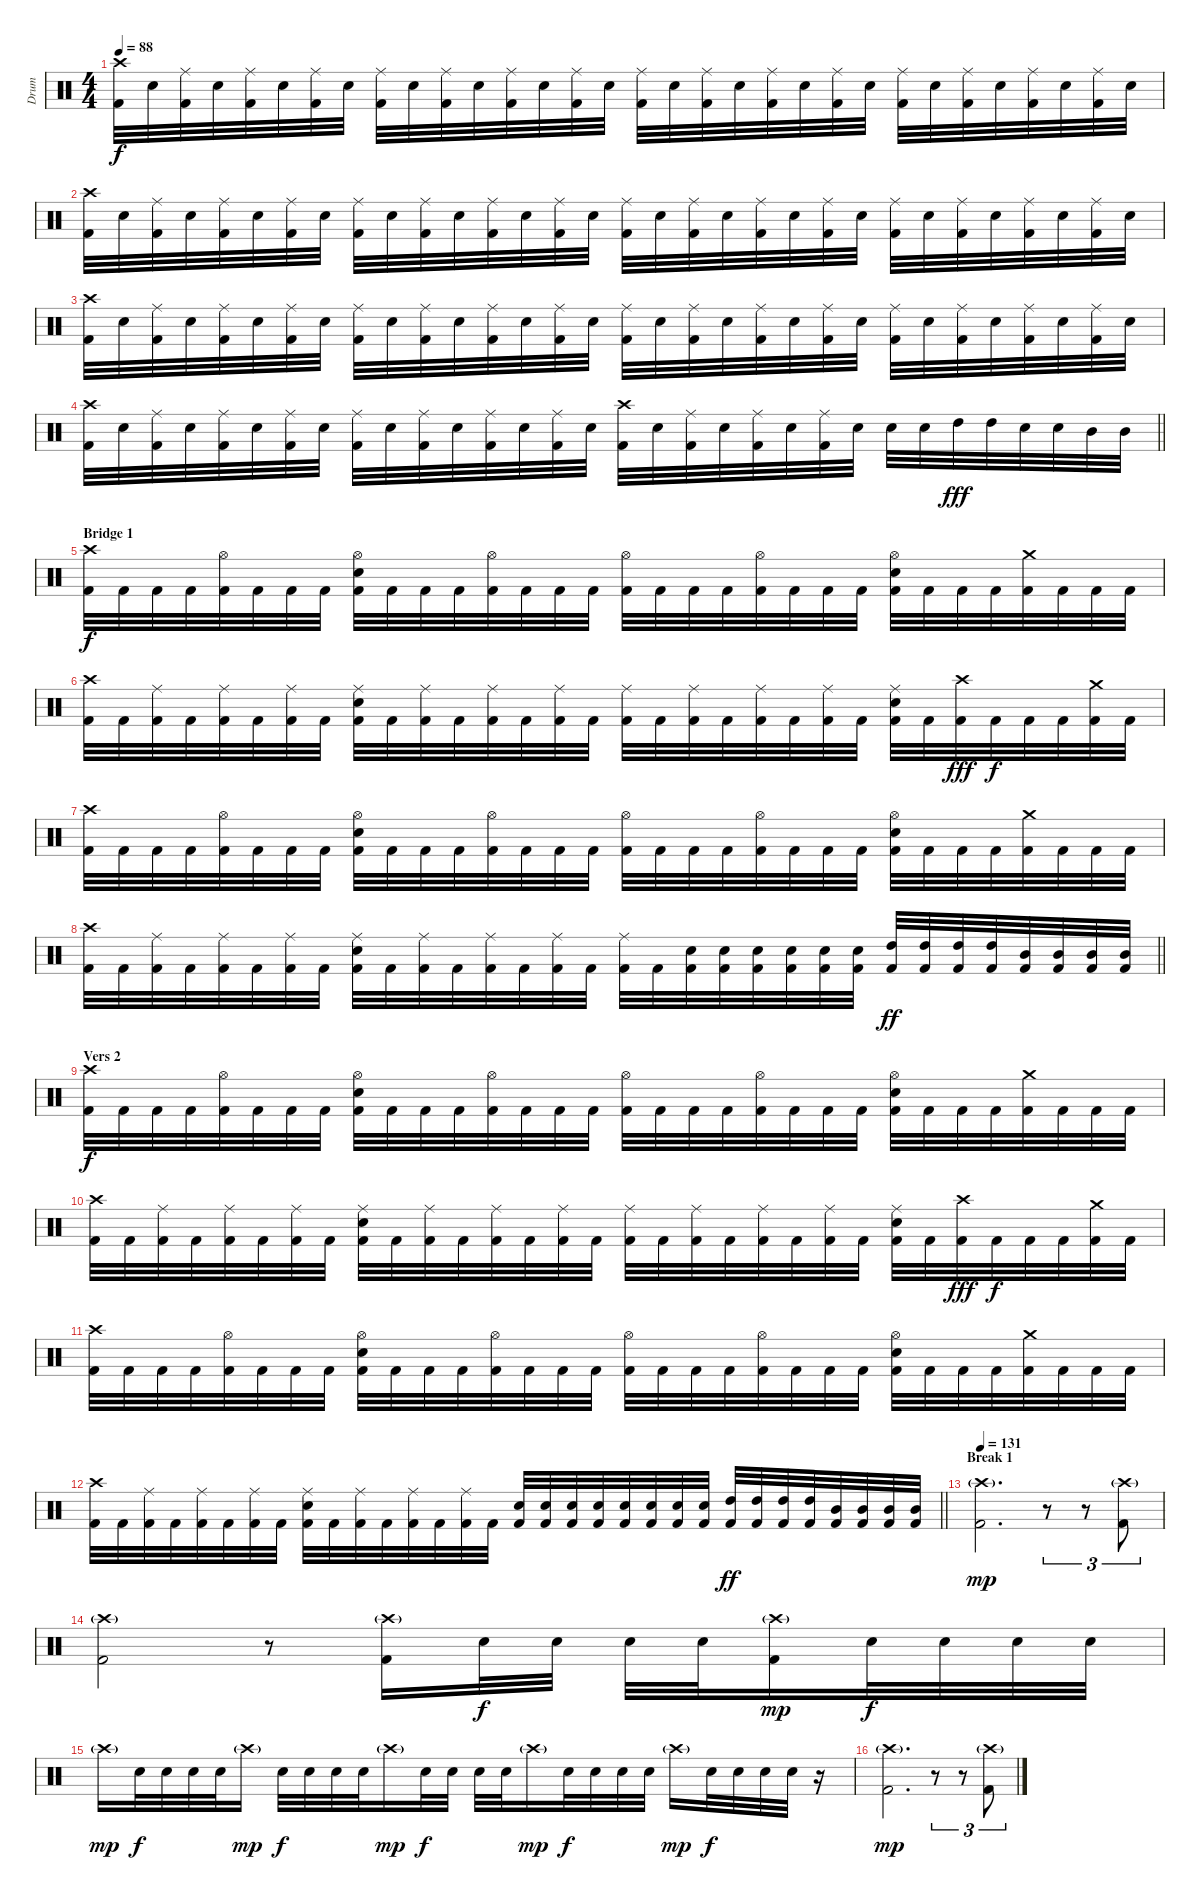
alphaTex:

\track ("Drum" "Drum") {instrument percussion}
\staff {score}
\articulation defaults
\ts (4 4)
\tempo 88
\clef neutral
\ks c
("Crash high (hit)" "Kick (hit) 2").32{dy f} "Electric Snare (hit)".32 ("Ride (middle)" "Kick (hit) 2").32 "Electric Snare (hit)".32 ("Ride (middle)" "Kick (hit) 2").32 "Electric Snare (hit)".32 ("Ride (middle)" "Kick (hit) 2").32 "Electric Snare (hit)".32 ("Ride (middle)" "Kick (hit) 2").32 "Electric Snare (hit)".32 ("Ride (middle)" "Kick (hit) 2").32 "Electric Snare (hit)".32 ("Ride (middle)" "Kick (hit) 2").32 "Electric Snare (hit)".32 ("Ride (middle)" "Kick (hit) 2").32 "Electric Snare (hit)".32 ("Ride (middle)" "Kick (hit) 2").32 "Electric Snare (hit)".32 ("Ride (middle)" "Kick (hit) 2").32 "Electric Snare (hit)".32 ("Ride (middle)" "Kick (hit) 2").32 "Electric Snare (hit)".32 ("Ride (middle)" "Kick (hit) 2").32 "Electric Snare (hit)".32 ("Ride (middle)" "Kick (hit) 2").32 "Electric Snare (hit)".32 ("Ride (middle)" "Kick (hit) 2").32 "Electric Snare (hit)".32 ("Ride (middle)" "Kick (hit) 2").32 "Electric Snare (hit)".32 ("Ride (middle)" "Kick (hit) 2").32 "Electric Snare (hit)".32 |
("Crash high (hit)" "Kick (hit) 2").32 "Electric Snare (hit)".32 ("Ride (middle)" "Kick (hit) 2").32 "Electric Snare (hit)".32 ("Ride (middle)" "Kick (hit) 2").32 "Electric Snare (hit)".32 ("Ride (middle)" "Kick (hit) 2").32 "Electric Snare (hit)".32 ("Ride (middle)" "Kick (hit) 2").32 "Electric Snare (hit)".32 ("Ride (middle)" "Kick (hit) 2").32 "Electric Snare (hit)".32 ("Ride (middle)" "Kick (hit) 2").32 "Electric Snare (hit)".32 ("Ride (middle)" "Kick (hit) 2").32 "Electric Snare (hit)".32 ("Ride (middle)" "Kick (hit) 2").32 "Electric Snare (hit)".32 ("Ride (middle)" "Kick (hit) 2").32 "Electric Snare (hit)".32 ("Ride (middle)" "Kick (hit) 2").32 "Electric Snare (hit)".32 ("Ride (middle)" "Kick (hit) 2").32 "Electric Snare (hit)".32 ("Ride (middle)" "Kick (hit) 2").32 "Electric Snare (hit)".32 ("Ride (middle)" "Kick (hit) 2").32 "Electric Snare (hit)".32 ("Ride (middle)" "Kick (hit) 2").32 "Electric Snare (hit)".32 ("Ride (middle)" "Kick (hit) 2").32 "Electric Snare (hit)".32 |
("Crash high (hit)" "Kick (hit) 2").32 "Electric Snare (hit)".32 ("Ride (middle)" "Kick (hit) 2").32 "Electric Snare (hit)".32 ("Ride (middle)" "Kick (hit) 2").32 "Electric Snare (hit)".32 ("Ride (middle)" "Kick (hit) 2").32 "Electric Snare (hit)".32 ("Ride (middle)" "Kick (hit) 2").32 "Electric Snare (hit)".32 ("Ride (middle)" "Kick (hit) 2").32 "Electric Snare (hit)".32 ("Ride (middle)" "Kick (hit) 2").32 "Electric Snare (hit)".32 ("Ride (middle)" "Kick (hit) 2").32 "Electric Snare (hit)".32 ("Ride (middle)" "Kick (hit) 2").32 "Electric Snare (hit)".32 ("Ride (middle)" "Kick (hit) 2").32 "Electric Snare (hit)".32 ("Ride (middle)" "Kick (hit) 2").32 "Electric Snare (hit)".32 ("Ride (middle)" "Kick (hit) 2").32 "Electric Snare (hit)".32 ("Ride (middle)" "Kick (hit) 2").32 "Electric Snare (hit)".32 ("Ride (middle)" "Kick (hit) 2").32 "Electric Snare (hit)".32 ("Ride (middle)" "Kick (hit) 2").32 "Electric Snare (hit)".32 ("Ride (middle)" "Kick (hit) 2").32 "Electric Snare (hit)".32 |
\barLineRight lightlight
("Crash high (hit)" "Kick (hit) 2").32 "Electric Snare (hit)".32 ("Ride (middle)" "Kick (hit) 2").32 "Electric Snare (hit)".32 ("Ride (middle)" "Kick (hit) 2").32 "Electric Snare (hit)".32 ("Ride (middle)" "Kick (hit) 2").32 "Electric Snare (hit)".32 ("Ride (middle)" "Kick (hit) 2").32 "Electric Snare (hit)".32 ("Ride (middle)" "Kick (hit) 2").32 "Electric Snare (hit)".32 ("Ride (middle)" "Kick (hit) 2").32 "Electric Snare (hit)".32 ("Ride (middle)" "Kick (hit) 2").32 "Electric Snare (hit)".32 ("Crash high (hit)" "Kick (hit) 2").32 "Electric Snare (hit)".32 ("Ride (middle)" "Kick (hit) 2").32 "Electric Snare (hit)".32 ("Ride (middle)" "Kick (hit) 2").32 "Electric Snare (hit)".32 ("Ride (middle)" "Kick (hit) 2").32 "Electric Snare (hit)".32 "Electric Snare (hit)".32 "Electric Snare (hit)".32 "High Tom (hit)".32{dy fff} "High Tom (hit)".32 "Electric Snare (hit)".32 "Electric Snare (hit)".32 "Mid Tom (hit)".32 "Mid Tom (hit)".32 |
\section ("" "Bridge 1")
("Crash high (hit)" "Kick (hit) 2").32{dy f} "Kick (hit) 2".32 "Kick (hit) 2".32 "Kick (hit) 2".32 ("Hi-Hat (open)" "Kick (hit) 2").32 "Kick (hit) 2".32 "Kick (hit) 2".32 "Kick (hit) 2".32 ("Hi-Hat (open)" "Electric Snare (hit)" "Kick (hit) 2").32 "Kick (hit) 2".32 "Kick (hit) 2".32 "Kick (hit) 2".32 ("Hi-Hat (open)" "Kick (hit) 2").32 "Kick (hit) 2".32 "Kick (hit) 2".32 "Kick (hit) 2".32 ("Hi-Hat (open)" "Kick (hit) 2").32 "Kick (hit) 2".32 "Kick (hit) 2".32 "Kick (hit) 2".32 ("Hi-Hat (open)" "Kick (hit) 2").32 "Kick (hit) 2".32 "Kick (hit) 2".32 "Kick (hit) 2".32 ("Hi-Hat (open)" "Electric Snare (hit)" "Kick (hit) 2").32 "Kick (hit) 2".32 "Kick (hit) 2".32 "Kick (hit) 2".32 ("Crash medium (hit)" "Kick (hit) 2").32 "Kick (hit) 2".32 "Kick (hit) 2".32 "Kick (hit) 2".32 |
("Crash high (hit)" "Kick (hit) 2").32 "Kick (hit) 2".32 ("Ride (middle)" "Kick (hit) 2").32 "Kick (hit) 2".32 ("Ride (middle)" "Kick (hit) 2").32 "Kick (hit) 2".32 ("Ride (middle)" "Kick (hit) 2").32 "Kick (hit) 2".32 ("Ride (middle)" "Electric Snare (hit)" "Kick (hit) 2").32 "Kick (hit) 2".32 ("Ride (middle)" "Kick (hit) 2").32 "Kick (hit) 2".32 ("Ride (middle)" "Kick (hit) 2").32 "Kick (hit) 2".32 ("Ride (middle)" "Kick (hit) 2").32 "Kick (hit) 2".32 ("Ride (middle)" "Kick (hit) 2").32 "Kick (hit) 2".32 ("Ride (middle)" "Kick (hit) 2").32 "Kick (hit) 2".32 ("Ride (middle)" "Kick (hit) 2").32 "Kick (hit) 2".32 ("Ride (middle)" "Kick (hit) 2").32 "Kick (hit) 2".32 ("Ride (middle)" "Electric Snare (hit)" "Kick (hit) 2").32 "Kick (hit) 2".32 ("Crash high (hit)" "Kick (hit) 2").32{dy fff} "Kick (hit) 2".32{dy f} "Kick (hit) 2".32 "Kick (hit) 2".32 ("Crash medium (hit)" "Kick (hit) 2").32 "Kick (hit) 2".32 |
("Crash high (hit)" "Kick (hit) 2").32 "Kick (hit) 2".32 "Kick (hit) 2".32 "Kick (hit) 2".32 ("Hi-Hat (open)" "Kick (hit) 2").32 "Kick (hit) 2".32 "Kick (hit) 2".32 "Kick (hit) 2".32 ("Hi-Hat (open)" "Electric Snare (hit)" "Kick (hit) 2").32 "Kick (hit) 2".32 "Kick (hit) 2".32 "Kick (hit) 2".32 ("Hi-Hat (open)" "Kick (hit) 2").32 "Kick (hit) 2".32 "Kick (hit) 2".32 "Kick (hit) 2".32 ("Hi-Hat (open)" "Kick (hit) 2").32 "Kick (hit) 2".32 "Kick (hit) 2".32 "Kick (hit) 2".32 ("Hi-Hat (open)" "Kick (hit) 2").32 "Kick (hit) 2".32 "Kick (hit) 2".32 "Kick (hit) 2".32 ("Hi-Hat (open)" "Electric Snare (hit)" "Kick (hit) 2").32 "Kick (hit) 2".32 "Kick (hit) 2".32 "Kick (hit) 2".32 ("Crash medium (hit)" "Kick (hit) 2").32 "Kick (hit) 2".32 "Kick (hit) 2".32 "Kick (hit) 2".32 |
\barLineRight lightlight
("Crash high (hit)" "Kick (hit) 2").32 "Kick (hit) 2".32 ("Ride (middle)" "Kick (hit) 2").32 "Kick (hit) 2".32 ("Ride (middle)" "Kick (hit) 2").32 "Kick (hit) 2".32 ("Ride (middle)" "Kick (hit) 2").32 "Kick (hit) 2".32 ("Ride (middle)" "Electric Snare (hit)" "Kick (hit) 2").32 "Kick (hit) 2".32 ("Ride (middle)" "Kick (hit) 2").32 "Kick (hit) 2".32 ("Ride (middle)" "Kick (hit) 2").32 "Kick (hit) 2".32 ("Ride (middle)" "Kick (hit) 2").32 "Kick (hit) 2".32 ("Ride (middle)" "Kick (hit) 2").32 "Kick (hit) 2".32 ("Electric Snare (hit)" "Kick (hit) 2").32 ("Electric Snare (hit)" "Kick (hit) 2").32 ("Electric Snare (hit)" "Kick (hit) 2").32 ("Electric Snare (hit)" "Kick (hit) 2").32 ("Electric Snare (hit)" "Kick (hit) 2").32 ("Electric Snare (hit)" "Kick (hit) 2").32 ("High Tom (hit)" "Kick (hit) 2").32{dy ff} ("High Tom (hit)" "Kick (hit) 2").32 ("High Tom (hit)" "Kick (hit) 2").32 ("High Tom (hit)" "Kick (hit) 2").32 ("Mid Tom (hit)" "Kick (hit) 2").32 ("Mid Tom (hit)" "Kick (hit) 2").32 ("Mid Tom (hit)" "Kick (hit) 2").32 ("Mid Tom (hit)" "Kick (hit) 2").32 |
\section ("" "Vers 2")
("Crash high (hit)" "Kick (hit) 2").32{dy f} "Kick (hit) 2".32 "Kick (hit) 2".32 "Kick (hit) 2".32 ("Hi-Hat (open)" "Kick (hit) 2").32 "Kick (hit) 2".32 "Kick (hit) 2".32 "Kick (hit) 2".32 ("Hi-Hat (open)" "Electric Snare (hit)" "Kick (hit) 2").32 "Kick (hit) 2".32 "Kick (hit) 2".32 "Kick (hit) 2".32 ("Hi-Hat (open)" "Kick (hit) 2").32 "Kick (hit) 2".32 "Kick (hit) 2".32 "Kick (hit) 2".32 ("Hi-Hat (open)" "Kick (hit) 2").32 "Kick (hit) 2".32 "Kick (hit) 2".32 "Kick (hit) 2".32 ("Hi-Hat (open)" "Kick (hit) 2").32 "Kick (hit) 2".32 "Kick (hit) 2".32 "Kick (hit) 2".32 ("Hi-Hat (open)" "Electric Snare (hit)" "Kick (hit) 2").32 "Kick (hit) 2".32 "Kick (hit) 2".32 "Kick (hit) 2".32 ("Crash medium (hit)" "Kick (hit) 2").32 "Kick (hit) 2".32 "Kick (hit) 2".32 "Kick (hit) 2".32 |
("Crash high (hit)" "Kick (hit) 2").32 "Kick (hit) 2".32 ("Ride (middle)" "Kick (hit) 2").32 "Kick (hit) 2".32 ("Ride (middle)" "Kick (hit) 2").32 "Kick (hit) 2".32 ("Ride (middle)" "Kick (hit) 2").32 "Kick (hit) 2".32 ("Ride (middle)" "Electric Snare (hit)" "Kick (hit) 2").32 "Kick (hit) 2".32 ("Ride (middle)" "Kick (hit) 2").32 "Kick (hit) 2".32 ("Ride (middle)" "Kick (hit) 2").32 "Kick (hit) 2".32 ("Ride (middle)" "Kick (hit) 2").32 "Kick (hit) 2".32 ("Ride (middle)" "Kick (hit) 2").32 "Kick (hit) 2".32 ("Ride (middle)" "Kick (hit) 2").32 "Kick (hit) 2".32 ("Ride (middle)" "Kick (hit) 2").32 "Kick (hit) 2".32 ("Ride (middle)" "Kick (hit) 2").32 "Kick (hit) 2".32 ("Ride (middle)" "Electric Snare (hit)" "Kick (hit) 2").32 "Kick (hit) 2".32 ("Crash high (hit)" "Kick (hit) 2").32{dy fff} "Kick (hit) 2".32{dy f} "Kick (hit) 2".32 "Kick (hit) 2".32 ("Crash medium (hit)" "Kick (hit) 2").32 "Kick (hit) 2".32 |
("Crash high (hit)" "Kick (hit) 2").32 "Kick (hit) 2".32 "Kick (hit) 2".32 "Kick (hit) 2".32 ("Hi-Hat (open)" "Kick (hit) 2").32 "Kick (hit) 2".32 "Kick (hit) 2".32 "Kick (hit) 2".32 ("Hi-Hat (open)" "Electric Snare (hit)" "Kick (hit) 2").32 "Kick (hit) 2".32 "Kick (hit) 2".32 "Kick (hit) 2".32 ("Hi-Hat (open)" "Kick (hit) 2").32 "Kick (hit) 2".32 "Kick (hit) 2".32 "Kick (hit) 2".32 ("Hi-Hat (open)" "Kick (hit) 2").32 "Kick (hit) 2".32 "Kick (hit) 2".32 "Kick (hit) 2".32 ("Hi-Hat (open)" "Kick (hit) 2").32 "Kick (hit) 2".32 "Kick (hit) 2".32 "Kick (hit) 2".32 ("Hi-Hat (open)" "Electric Snare (hit)" "Kick (hit) 2").32 "Kick (hit) 2".32 "Kick (hit) 2".32 "Kick (hit) 2".32 ("Crash medium (hit)" "Kick (hit) 2").32 "Kick (hit) 2".32 "Kick (hit) 2".32 "Kick (hit) 2".32 |
\barLineRight lightlight
("Crash high (hit)" "Kick (hit) 2").32 "Kick (hit) 2".32 ("Ride (middle)" "Kick (hit) 2").32 "Kick (hit) 2".32 ("Ride (middle)" "Kick (hit) 2").32 "Kick (hit) 2".32 ("Ride (middle)" "Kick (hit) 2").32 "Kick (hit) 2".32 ("Ride (middle)" "Electric Snare (hit)" "Kick (hit) 2").32 "Kick (hit) 2".32 ("Ride (middle)" "Kick (hit) 2").32 "Kick (hit) 2".32 ("Ride (middle)" "Kick (hit) 2").32 "Kick (hit) 2".32 ("Ride (middle)" "Kick (hit) 2").32 "Kick (hit) 2".32 ("Electric Snare (hit)" "Kick (hit) 2").32 ("Electric Snare (hit)" "Kick (hit) 2").32 ("Electric Snare (hit)" "Kick (hit) 2").32 ("Electric Snare (hit)" "Kick (hit) 2").32 ("Electric Snare (hit)" "Kick (hit) 2").32 ("Electric Snare (hit)" "Kick (hit) 2").32 ("Electric Snare (hit)" "Kick (hit) 2").32 ("Electric Snare (hit)" "Kick (hit) 2").32 ("High Tom (hit)" "Kick (hit) 2").32{dy ff} ("High Tom (hit)" "Kick (hit) 2").32 ("High Tom (hit)" "Kick (hit) 2").32 ("High Tom (hit)" "Kick (hit) 2").32 ("Mid Tom (hit)" "Kick (hit) 2").32 ("Mid Tom (hit)" "Kick (hit) 2").32 ("Mid Tom (hit)" "Kick (hit) 2").32 ("Mid Tom (hit)" "Kick (hit) 2").32 |
\section ("" "Break 1")
\tempo 131
("Crash high (hit)"{g} "Kick (hit) 2").2{d dy mp} r.8{tu (3 2)} r.8{tu (3 2)} ("Crash high (hit)"{g} "Kick (hit) 2").8{tu (3 2)} |
("Crash high (hit)"{g} "Kick (hit) 2").2 r.8 ("Crash high (hit)"{g} "Kick (hit) 2").16 "Electric Snare (hit)".32{dy f} "Electric Snare (hit)".32 "Electric Snare (hit)".32 "Electric Snare (hit)".32 ("Crash high (hit)"{g} "Kick (hit) 2").16{dy mp} "Electric Snare (hit)".32{dy f} "Electric Snare (hit)".32 "Electric Snare (hit)".32 "Electric Snare (hit)".32 |
"Crash high (hit)"{g}.16{dy mp} "Electric Snare (hit)".32{dy f} "Electric Snare (hit)".32 "Electric Snare (hit)".32 "Electric Snare (hit)".32 "Crash high (hit)"{g}.16{dy mp} "Electric Snare (hit)".32{dy f} "Electric Snare (hit)".32 "Electric Snare (hit)".32 "Electric Snare (hit)".32 "Crash high (hit)"{g}.16{dy mp} "Electric Snare (hit)".32{dy f} "Electric Snare (hit)".32 "Electric Snare (hit)".32 "Electric Snare (hit)".32 "Crash high (hit)"{g}.16{dy mp} "Electric Snare (hit)".32{dy f} "Electric Snare (hit)".32 "Electric Snare (hit)".32 "Electric Snare (hit)".32 "Crash high (hit)"{g}.16{dy mp} "Electric Snare (hit)".32{dy f} "Electric Snare (hit)".32 "Electric Snare (hit)".32 "Electric Snare (hit)".32 r.16 |
("Crash high (hit)"{g} "Kick (hit) 2").2{d dy mp} r.8{tu (3 2)} r.8{tu (3 2)} ("Crash high (hit)"{g} "Kick (hit) 2").8{tu (3 2)}
